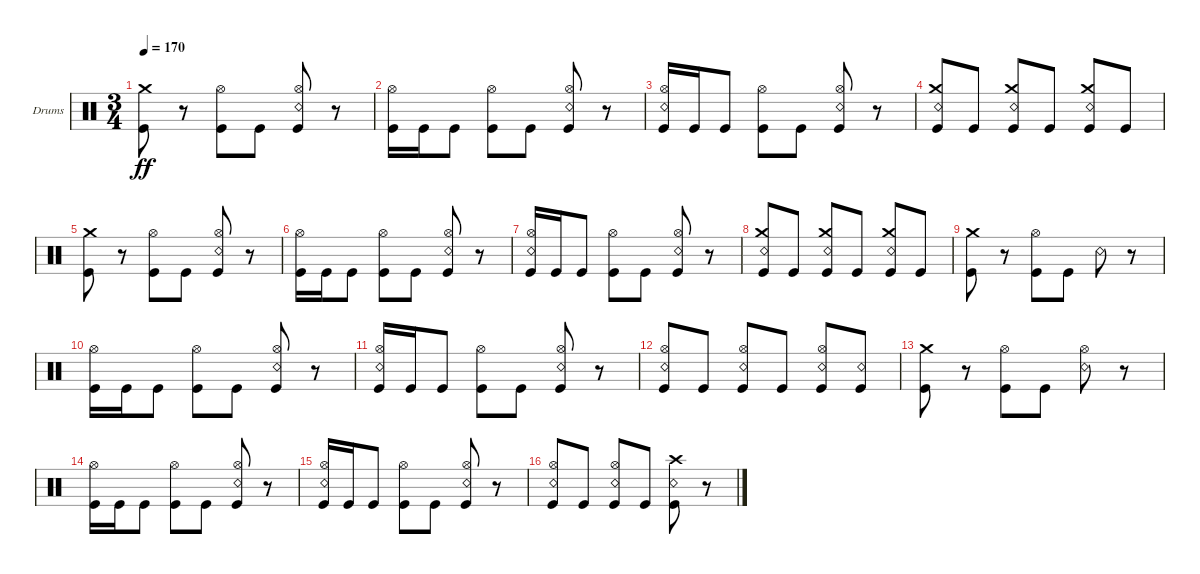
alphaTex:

\bracketExtendMode groupsimilarinstruments
\firstSystemTrackNameOrientation horizontal
\otherSystemsTrackNameOrientation horizontal
\track ("Kaleb - Drums" "Drums") {instrument percussion}
\staff {score}
\articulation defaults
\ts (3 4)
\tempo 170
\clef neutral
\ks c
("Kick (hit)" "Crash medium (hit)").8{dy ff} r.8 ("Kick (hit)" "Hi-Hat (open)").8 "Kick (hit)".8 ("Kick (hit)" "Hi-Hat (open)" "Snare (rim shot)").8 r.8 |
("Kick (hit)" "Hi-Hat (open)").16 "Kick (hit)".16 "Kick (hit)".8 ("Kick (hit)" "Hi-Hat (open)").8 "Kick (hit)".8 ("Kick (hit)" "Hi-Hat (open)" "Snare (rim shot)").8 r.8 |
("Kick (hit)" "Hi-Hat (open)" "Snare (rim shot)").16 "Kick (hit)".16 "Kick (hit)".8 ("Kick (hit)" "Hi-Hat (open)").8 "Kick (hit)".8 ("Kick (hit)" "Hi-Hat (open)" "Snare (rim shot)").8 r.8 |
("Kick (hit)" "Crash medium (hit)" "Snare (rim shot)").8 "Kick (hit)".8 ("Kick (hit)" "Crash medium (hit)" "Snare (rim shot)").8 "Kick (hit)".8 ("Kick (hit)" "Crash medium (hit)" "Snare (rim shot)").8 "Kick (hit)".8 |
("Kick (hit)" "Crash medium (hit)").8 r.8 ("Kick (hit)" "Hi-Hat (open)").8 "Kick (hit)".8 ("Kick (hit)" "Hi-Hat (open)" "Snare (rim shot)").8 r.8 |
("Kick (hit)" "Hi-Hat (open)").16 "Kick (hit)".16 "Kick (hit)".8 ("Kick (hit)" "Hi-Hat (open)").8 "Kick (hit)".8 ("Kick (hit)" "Hi-Hat (open)" "Snare (rim shot)").8 r.8 |
("Kick (hit)" "Hi-Hat (open)" "Snare (rim shot)").16 "Kick (hit)".16 "Kick (hit)".8 ("Kick (hit)" "Hi-Hat (open)").8 "Kick (hit)".8 ("Kick (hit)" "Hi-Hat (open)" "Snare (rim shot)").8 r.8 |
("Kick (hit)" "Crash medium (hit)" "Snare (rim shot)").8 "Kick (hit)".8 ("Kick (hit)" "Crash medium (hit)" "Snare (rim shot)").8 "Kick (hit)".8 ("Kick (hit)" "Crash medium (hit)" "Snare (rim shot)").8 "Kick (hit)".8 |
("Kick (hit)" "Crash medium (hit)").8 r.8 ("Kick (hit)" "Hi-Hat (open)").8 "Kick (hit)".8 "Snare (rim shot)".8 r.8 |
("Kick (hit)" "Hi-Hat (open)").16 "Kick (hit)".16 "Kick (hit)".8 ("Kick (hit)" "Hi-Hat (open)").8 "Kick (hit)".8 ("Kick (hit)" "Hi-Hat (open)" "Snare (rim shot)").8 r.8 |
("Kick (hit)" "Hi-Hat (open)" "Snare (rim shot)").16 "Kick (hit)".16 "Kick (hit)".8 ("Kick (hit)" "Hi-Hat (open)").8 "Kick (hit)".8 ("Kick (hit)" "Hi-Hat (open)" "Snare (rim shot)").8 r.8 |
("Kick (hit)" "Snare (rim shot)" "Hi-Hat (open)").8 "Kick (hit)".8 ("Kick (hit)" "Snare (rim shot)" "Hi-Hat (open)").8 "Kick (hit)".8 ("Kick (hit)" "Snare (rim shot)" "Hi-Hat (open)").8 ("Kick (hit)" "Snare (rim shot)").8 |
("Kick (hit)" "Crash medium (hit)").8 r.8 ("Kick (hit)" "Hi-Hat (open)").8 "Kick (hit)".8 ("Snare (rim shot)" "Hi-Hat (open)").8 r.8 |
("Kick (hit)" "Hi-Hat (open)").16 "Kick (hit)".16 "Kick (hit)".8 ("Kick (hit)" "Hi-Hat (open)").8 "Kick (hit)".8 ("Kick (hit)" "Hi-Hat (open)" "Snare (rim shot)").8 r.8 |
("Kick (hit)" "Hi-Hat (open)" "Snare (rim shot)").16 "Kick (hit)".16 "Kick (hit)".8 ("Kick (hit)" "Hi-Hat (open)").8 "Kick (hit)".8 ("Kick (hit)" "Hi-Hat (open)" "Snare (rim shot)").8 r.8 |
("Kick (hit)" "Snare (rim shot)" "Hi-Hat (open)").8 "Kick (hit)".8 ("Kick (hit)" "Snare (rim shot)" "Hi-Hat (open)").8 "Kick (hit)".8 ("Kick (hit)" "Snare (rim shot)" "Crash high (hit)").8 r.8
